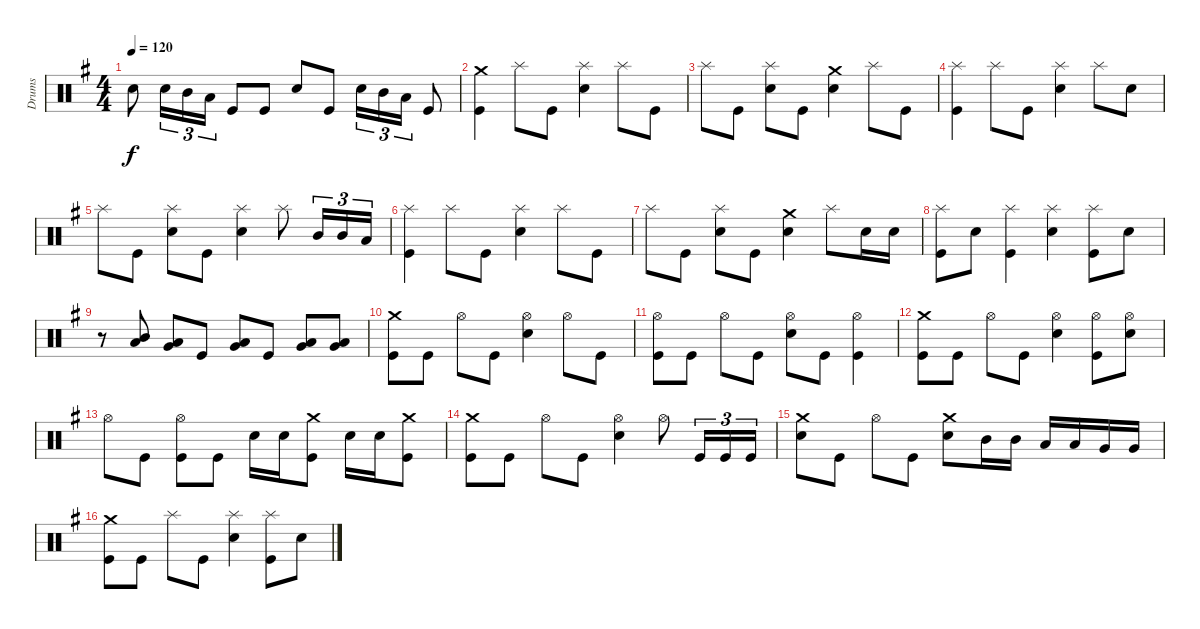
\track ("Drums" "Drums") {instrument percussion}
\staff {score}
\articulation defaults
\ts (4 4)
\tempo 120
\clef neutral
\ks g "Electric Snare (hit)".8{dy f} "Electric Snare (hit)".16{tu (3 2)} "Mid Tom (hit)".16{tu (3 2)} "Low Tom (hit)".16{tu (3 2)} "Kick (hit)".8 "Kick (hit)".8 "Electric Snare (hit)".8 "Kick (hit)".8 "Electric Snare (hit)".16{tu (3 2)} "Mid Tom (hit)".16{tu (3 2)} "Low Tom (hit)".16{tu (3 2)} "Kick (hit)".8
|
("Kick (hit)" "Crash medium (hit)").4 "Splash (hit)".8 "Kick (hit)".8 ("Electric Snare (hit)" "Splash (hit)").4 "Splash (hit)".8 "Kick (hit)".8 |
"Splash (hit)".8 "Kick (hit)".8 ("Electric Snare (hit)" "Splash (hit)").8 "Kick (hit)".8 ("Electric Snare (hit)" "Crash medium (hit)").4 "Splash (hit)".8 "Kick (hit)".8 |
("Kick (hit)" "Splash (hit)").4 "Splash (hit)".8 "Kick (hit)".8 ("Electric Snare (hit)" "Splash (hit)").4 "Splash (hit)".8 "Electric Snare (hit)".8 |
"Splash (hit)".8 "Kick (hit)".8 ("Electric Snare (hit)" "Splash (hit)").8 "Kick (hit)".8 ("Electric Snare (hit)" "Splash (hit)").4 "Splash (hit)".8 "Mid Tom (hit)".16{tu (3 2)} "Mid Tom (hit)".16{tu (3 2)} "Low Tom (hit)".16{tu (3 2)} |
("Kick (hit)" "Splash (hit)").4 "Splash (hit)".8 "Kick (hit)".8 ("Electric Snare (hit)" "Splash (hit)").4 "Splash (hit)".8 "Kick (hit)".8 |
"Splash (hit)".8 "Kick (hit)".8 ("Electric Snare (hit)" "Splash (hit)").8 "Kick (hit)".8 ("Electric Snare (hit)" "Crash medium (hit)").4 "Splash (hit)".8 "Electric Snare (hit)".16 "Electric Snare (hit)".16 |
("Kick (hit)" "Splash (hit)").8 "Electric Snare (hit)".8 ("Kick (hit)" "Splash (hit)").4 ("Electric Snare (hit)" "Splash (hit)").4 ("Kick (hit)" "Splash (hit)").8 "Electric Snare (hit)".8 |
r.8 ("Low Tom (hit)" "Mid Tom (hit)").8 ("Very Low Tom (hit)" "Low Tom (hit)").8 "Kick (hit)".8 ("Very Low Tom (hit)" "Low Tom (hit)").8 "Kick (hit)".8 ("Very Low Tom (hit)" "Low Floor Tom (hit)").8 ("Very Low Tom (hit)" "Low Floor Tom (hit)").8 |
("Kick (hit)" "Crash medium (hit)").8 "Kick (hit)".8 "Hi-Hat (open)".8 "Kick (hit)".8 ("Electric Snare (hit)" "Hi-Hat (open)").4 "Hi-Hat (open)".8 "Kick (hit)".8 |
("Kick (hit)" "Hi-Hat (open)").8 "Kick (hit)".8 "Hi-Hat (open)".8 "Kick (hit)".8 ("Electric Snare (hit)" "Hi-Hat (open)").8 "Kick (hit)".8 ("Kick (hit)" "Hi-Hat (open)").4 |
("Kick (hit)" "Crash medium (hit)").8 "Kick (hit)".8 "Hi-Hat (open)".8 "Kick (hit)".8 ("Electric Snare (hit)" "Hi-Hat (open)").4 ("Kick (hit)" "Hi-Hat (open)").8 ("Electric Snare (hit)" "Hi-Hat (open)").8 |
"Hi-Hat (open)".8 "Kick (hit)".8 ("Kick (hit)" "Hi-Hat (open)").8 "Kick (hit)".8 "Electric Snare (hit)".16 "Electric Snare (hit)".16 ("Kick (hit)" "Crash medium (hit)").8 "Electric Snare (hit)".16 "Electric Snare (hit)".16 ("Kick (hit)" "Crash medium (hit)").8 |
("Kick (hit)" "Crash medium (hit)").8 "Kick (hit)".8 "Hi-Hat (open)".8 "Kick (hit)".8 ("Electric Snare (hit)" "Hi-Hat (open)").4 "Hi-Hat (open)".8 "Kick (hit)".16{tu (3 2)} "Kick (hit)".16{tu (3 2)} "Kick (hit)".16{tu (3 2)} |
("Electric Snare (hit)" "Crash medium (hit)").8 "Kick (hit)".8 "Hi-Hat (open)".8 "Kick (hit)".8 ("Electric Snare (hit)" "Crash medium (hit)").8 "Mid Tom (hit)".16 "Mid Tom (hit)".16 "Low Tom (hit)".16 "Low Tom (hit)".16 "Very Low Tom (hit)".16 "Very Low Tom (hit)".16 |
("Kick (hit)" "Crash medium (hit)").8 "Kick (hit)".8 "Splash (hit)".8 "Kick (hit)".8 ("Electric Snare (hit)" "Splash (hit)").4 ("Kick (hit)" "Splash (hit)").8 "Electric Snare (hit)".8
